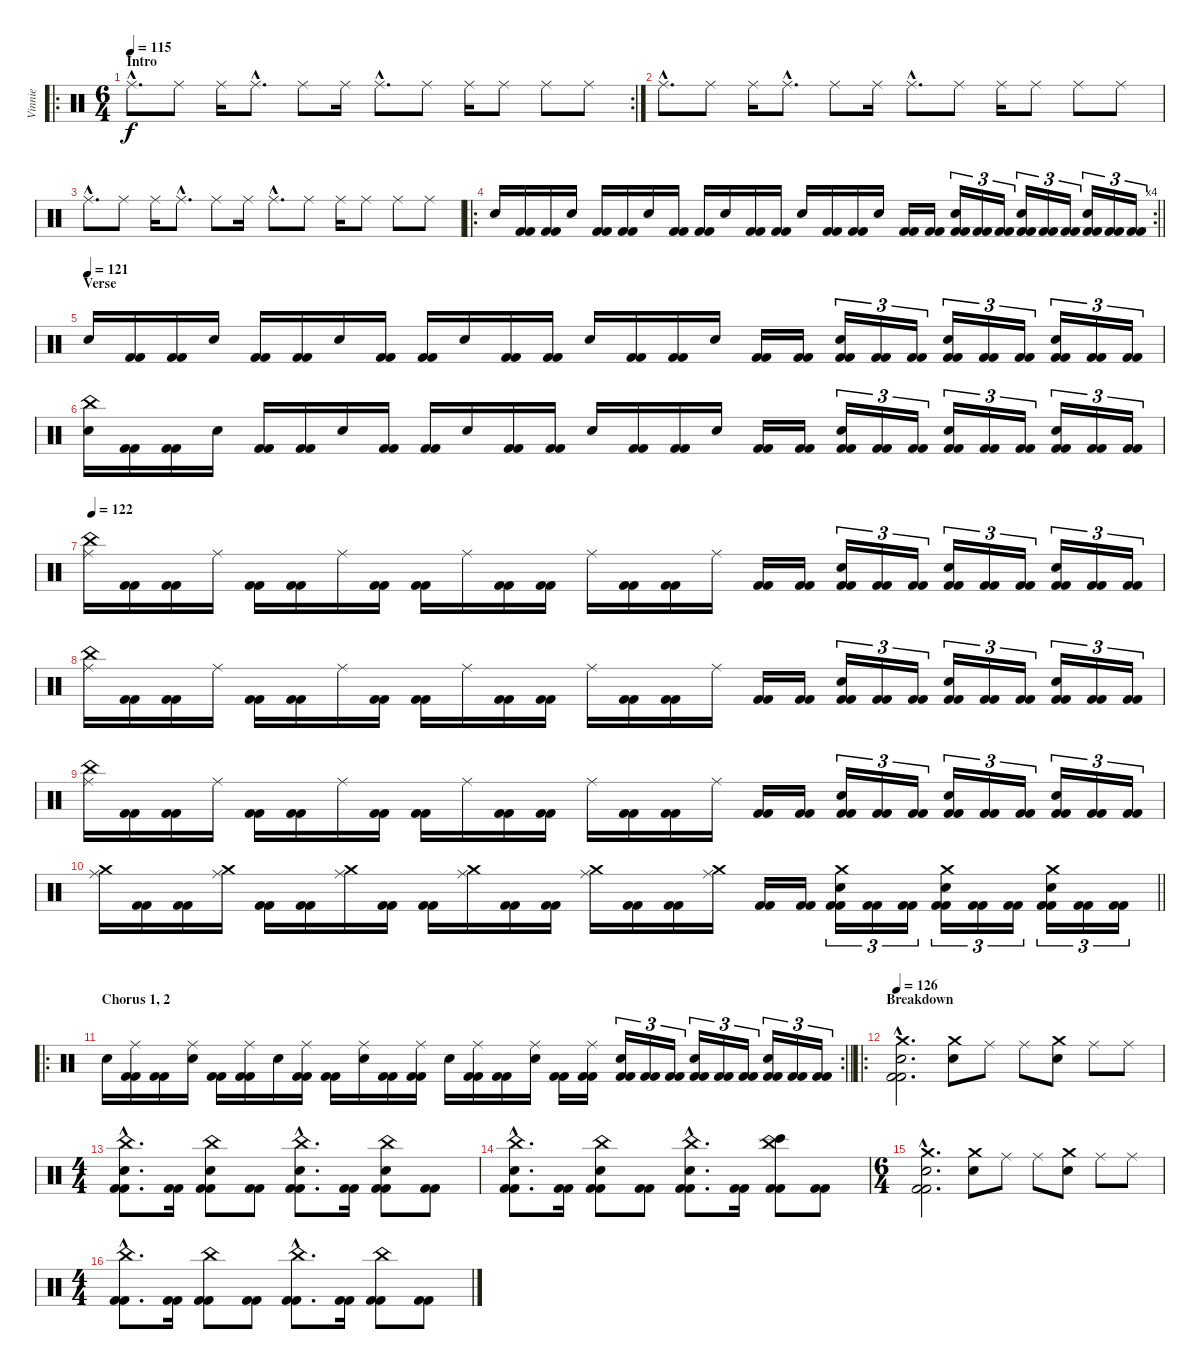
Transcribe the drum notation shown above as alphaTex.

\track ("Vinnie" "Vinnie") {instrument percussion}
\staff {score}
\articulation defaults
\ro
\rc 2
\ts (6 4)
\section ("" "Intro")
\tempo 115
\clef neutral
\ks c "Ride (middle)"{hac}.8{d dy f} "Ride (middle)".8 "Ride (middle)".16 "Ride (middle)"{hac}.8{d} "Ride (middle)".8 "Ride (middle)".16 "Ride (middle)"{hac}.8{d} "Ride (middle)".8 "Ride (middle)".16 "Ride (middle)".8 "Ride (middle)".8 "Ride (middle)".8
|
"Ride (middle)"{hac}.8{d} "Ride (middle)".8 "Ride (middle)".16 "Ride (middle)"{hac}.8{d} "Ride (middle)".8 "Ride (middle)".16 "Ride (middle)"{hac}.8{d} "Ride (middle)".8 "Ride (middle)".16 "Ride (middle)".8 "Ride (middle)".8 "Ride (middle)".8 |
"Ride (middle)"{hac}.8{d} "Ride (middle)".8 "Ride (middle)".16 "Ride (middle)"{hac}.8{d} "Ride (middle)".8 "Ride (middle)".16 "Ride (middle)"{hac}.8{d} "Ride (middle)".8 "Ride (middle)".16 "Ride (middle)".8 "Ride (middle)".8 "Ride (middle)".8 |
\ro
\rc 4
\barLineRight lightlight "Snare (hit) 2".16
("Kick (hit) 2" "Kick (hit) 2").16 ("Kick (hit) 2" "Kick (hit) 2").16 "Snare (hit) 2".16 ("Kick (hit) 2" "Kick (hit) 2").16 ("Kick (hit) 2" "Kick (hit) 2").16 "Snare (hit) 2".16 ("Kick (hit) 2" "Kick (hit) 2").16 ("Kick (hit) 2" "Kick (hit) 2").16 "Snare (hit) 2".16 ("Kick (hit) 2" "Kick (hit) 2").16 ("Kick (hit) 2" "Kick (hit) 2").16 "Snare (hit) 2".16 ("Kick (hit) 2" "Kick (hit) 2").16 ("Kick (hit) 2" "Kick (hit) 2").16 "Snare (hit) 2".16 ("Kick (hit) 2" "Kick (hit) 2").16 ("Kick (hit) 2" "Kick (hit) 2").16 ("Snare (hit) 2" "Kick (hit) 2" "Kick (hit) 2").16{tu (3 2)} ("Kick (hit) 2" "Kick (hit) 2").16{tu (3 2)} ("Kick (hit) 2" "Kick (hit) 2").16{tu (3 2)} ("Snare (hit) 2" "Kick (hit) 2" "Kick (hit) 2").16{tu (3 2)} ("Kick (hit) 2" "Kick (hit) 2").16{tu (3 2)} ("Kick (hit) 2" "Kick (hit) 2").16{tu (3 2)} ("Snare (hit) 2" "Kick (hit) 2" "Kick (hit) 2").16{tu (3 2)} ("Kick (hit) 2" "Kick (hit) 2").16{tu (3 2)} ("Kick (hit) 2" "Kick (hit) 2").16{tu (3 2)} |
\section ("" "Verse")
\tempo (121)
"Snare (hit) 2".16 ("Kick (hit) 2" "Kick (hit) 2").16 ("Kick (hit) 2" "Kick (hit) 2").16 "Snare (hit) 2".16 ("Kick (hit) 2" "Kick (hit) 2").16 ("Kick (hit) 2" "Kick (hit) 2").16 "Snare (hit) 2".16 ("Kick (hit) 2" "Kick (hit) 2").16 ("Kick (hit) 2" "Kick (hit) 2").16 "Snare (hit) 2".16 ("Kick (hit) 2" "Kick (hit) 2").16 ("Kick (hit) 2" "Kick (hit) 2").16 "Snare (hit) 2".16 ("Kick (hit) 2" "Kick (hit) 2").16 ("Kick (hit) 2" "Kick (hit) 2").16 "Snare (hit) 2".16 ("Kick (hit) 2" "Kick (hit) 2").16 ("Kick (hit) 2" "Kick (hit) 2").16 ("Snare (hit) 2" "Kick (hit) 2" "Kick (hit) 2").16{tu (3 2)} ("Kick (hit) 2" "Kick (hit) 2").16{tu (3 2)} ("Kick (hit) 2" "Kick (hit) 2").16{tu (3 2)} ("Snare (hit) 2" "Kick (hit) 2" "Kick (hit) 2").16{tu (3 2)} ("Kick (hit) 2" "Kick (hit) 2").16{tu (3 2)} ("Kick (hit) 2" "Kick (hit) 2").16{tu (3 2)} ("Snare (hit) 2" "Kick (hit) 2" "Kick (hit) 2").16{tu (3 2)} ("Kick (hit) 2" "Kick (hit) 2").16{tu (3 2)} ("Kick (hit) 2" "Kick (hit) 2").16{tu (3 2)} |
("China (hit)" "Snare (hit) 2").16 ("Kick (hit) 2" "Kick (hit) 2").16 ("Kick (hit) 2" "Kick (hit) 2").16 "Snare (hit) 2".16 ("Kick (hit) 2" "Kick (hit) 2").16 ("Kick (hit) 2" "Kick (hit) 2").16 "Snare (hit) 2".16 ("Kick (hit) 2" "Kick (hit) 2").16 ("Kick (hit) 2" "Kick (hit) 2").16 "Snare (hit) 2".16 ("Kick (hit) 2" "Kick (hit) 2").16 ("Kick (hit) 2" "Kick (hit) 2").16 "Snare (hit) 2".16 ("Kick (hit) 2" "Kick (hit) 2").16 ("Kick (hit) 2" "Kick (hit) 2").16 "Snare (hit) 2".16 ("Kick (hit) 2" "Kick (hit) 2").16 ("Kick (hit) 2" "Kick (hit) 2").16 ("Snare (hit) 2" "Kick (hit) 2" "Kick (hit) 2").16{tu (3 2)} ("Kick (hit) 2" "Kick (hit) 2").16{tu (3 2)} ("Kick (hit) 2" "Kick (hit) 2").16{tu (3 2)} ("Snare (hit) 2" "Kick (hit) 2" "Kick (hit) 2").16{tu (3 2)} ("Kick (hit) 2" "Kick (hit) 2").16{tu (3 2)} ("Kick (hit) 2" "Kick (hit) 2").16{tu (3 2)} ("Snare (hit) 2" "Kick (hit) 2" "Kick (hit) 2").16{tu (3 2)} ("Kick (hit) 2" "Kick (hit) 2").16{tu (3 2)} ("Kick (hit) 2" "Kick (hit) 2").16{tu (3 2)} |
\tempo 122
("Ride (middle)" "China (hit)").16 ("Kick (hit) 2" "Kick (hit) 2").16 ("Kick (hit) 2" "Kick (hit) 2").16 "Ride (middle)".16 ("Kick (hit) 2" "Kick (hit) 2").16 ("Kick (hit) 2" "Kick (hit) 2").16 "Ride (middle)".16 ("Kick (hit) 2" "Kick (hit) 2").16 ("Kick (hit) 2" "Kick (hit) 2").16 "Ride (middle)".16 ("Kick (hit) 2" "Kick (hit) 2").16 ("Kick (hit) 2" "Kick (hit) 2").16 "Ride (middle)".16 ("Kick (hit) 2" "Kick (hit) 2").16 ("Kick (hit) 2" "Kick (hit) 2").16 "Ride (middle)".16 ("Kick (hit) 2" "Kick (hit) 2").16 ("Kick (hit) 2" "Kick (hit) 2").16 ("Snare (hit) 2" "Kick (hit) 2" "Kick (hit) 2").16{tu (3 2)} ("Kick (hit) 2" "Kick (hit) 2").16{tu (3 2)} ("Kick (hit) 2" "Kick (hit) 2").16{tu (3 2)} ("Snare (hit) 2" "Kick (hit) 2" "Kick (hit) 2").16{tu (3 2)} ("Kick (hit) 2" "Kick (hit) 2").16{tu (3 2)} ("Kick (hit) 2" "Kick (hit) 2").16{tu (3 2)} ("Snare (hit) 2" "Kick (hit) 2" "Kick (hit) 2").16{tu (3 2)} ("Kick (hit) 2" "Kick (hit) 2").16{tu (3 2)} ("Kick (hit) 2" "Kick (hit) 2").16{tu (3 2)} |
("Ride (middle)" "China (hit)").16 ("Kick (hit) 2" "Kick (hit) 2").16 ("Kick (hit) 2" "Kick (hit) 2").16 "Ride (middle)".16 ("Kick (hit) 2" "Kick (hit) 2").16 ("Kick (hit) 2" "Kick (hit) 2").16 "Ride (middle)".16 ("Kick (hit) 2" "Kick (hit) 2").16 ("Kick (hit) 2" "Kick (hit) 2").16 "Ride (middle)".16 ("Kick (hit) 2" "Kick (hit) 2").16 ("Kick (hit) 2" "Kick (hit) 2").16 "Ride (middle)".16 ("Kick (hit) 2" "Kick (hit) 2").16 ("Kick (hit) 2" "Kick (hit) 2").16 "Ride (middle)".16 ("Kick (hit) 2" "Kick (hit) 2").16 ("Kick (hit) 2" "Kick (hit) 2").16 ("Snare (hit) 2" "Kick (hit) 2" "Kick (hit) 2").16{tu (3 2)} ("Kick (hit) 2" "Kick (hit) 2").16{tu (3 2)} ("Kick (hit) 2" "Kick (hit) 2").16{tu (3 2)} ("Snare (hit) 2" "Kick (hit) 2" "Kick (hit) 2").16{tu (3 2)} ("Kick (hit) 2" "Kick (hit) 2").16{tu (3 2)} ("Kick (hit) 2" "Kick (hit) 2").16{tu (3 2)} ("Snare (hit) 2" "Kick (hit) 2" "Kick (hit) 2").16{tu (3 2)} ("Kick (hit) 2" "Kick (hit) 2").16{tu (3 2)} ("Kick (hit) 2" "Kick (hit) 2").16{tu (3 2)} |
("Ride (middle)" "China (hit)").16 ("Kick (hit) 2" "Kick (hit) 2").16 ("Kick (hit) 2" "Kick (hit) 2").16 "Ride (middle)".16 ("Kick (hit) 2" "Kick (hit) 2").16 ("Kick (hit) 2" "Kick (hit) 2").16 "Ride (middle)".16 ("Kick (hit) 2" "Kick (hit) 2").16 ("Kick (hit) 2" "Kick (hit) 2").16 "Ride (middle)".16 ("Kick (hit) 2" "Kick (hit) 2").16 ("Kick (hit) 2" "Kick (hit) 2").16 "Ride (middle)".16 ("Kick (hit) 2" "Kick (hit) 2").16 ("Kick (hit) 2" "Kick (hit) 2").16 "Ride (middle)".16 ("Kick (hit) 2" "Kick (hit) 2").16 ("Kick (hit) 2" "Kick (hit) 2").16 ("Snare (hit) 2" "Kick (hit) 2" "Kick (hit) 2").16{tu (3 2)} ("Kick (hit) 2" "Kick (hit) 2").16{tu (3 2)} ("Kick (hit) 2" "Kick (hit) 2").16{tu (3 2)} ("Snare (hit) 2" "Kick (hit) 2" "Kick (hit) 2").16{tu (3 2)} ("Kick (hit) 2" "Kick (hit) 2").16{tu (3 2)} ("Kick (hit) 2" "Kick (hit) 2").16{tu (3 2)} ("Snare (hit) 2" "Kick (hit) 2" "Kick (hit) 2").16{tu (3 2)} ("Kick (hit) 2" "Kick (hit) 2").16{tu (3 2)} ("Kick (hit) 2" "Kick (hit) 2").16{tu (3 2)} |
\barLineRight lightlight
("Ride (middle)" "Crash medium (hit)").16 ("Kick (hit) 2" "Kick (hit) 2").16 ("Kick (hit) 2" "Kick (hit) 2").16 ("Ride (middle)" "Crash medium (hit)").16 ("Kick (hit) 2" "Kick (hit) 2").16 ("Kick (hit) 2" "Kick (hit) 2").16 ("Ride (middle)" "Crash medium (hit)").16 ("Kick (hit) 2" "Kick (hit) 2").16 ("Kick (hit) 2" "Kick (hit) 2").16 ("Ride (middle)" "Crash medium (hit)").16 ("Kick (hit) 2" "Kick (hit) 2").16 ("Kick (hit) 2" "Kick (hit) 2").16 ("Ride (middle)" "Crash medium (hit)").16 ("Kick (hit) 2" "Kick (hit) 2").16 ("Kick (hit) 2" "Kick (hit) 2").16 ("Ride (middle)" "Crash medium (hit)").16 ("Kick (hit) 2" "Kick (hit) 2").16 ("Kick (hit) 2" "Kick (hit) 2").16 ("Crash medium (hit)" "Snare (hit) 2" "Kick (hit) 2" "Kick (hit) 2").16{tu (3 2)} ("Kick (hit) 2" "Kick (hit) 2").16{tu (3 2)} ("Kick (hit) 2" "Kick (hit) 2").16{tu (3 2)} ("Crash medium (hit)" "Snare (hit) 2" "Kick (hit) 2" "Kick (hit) 2").16{tu (3 2)} ("Kick (hit) 2" "Kick (hit) 2").16{tu (3 2)} ("Kick (hit) 2" "Kick (hit) 2").16{tu (3 2)} ("Crash medium (hit)" "Snare (hit) 2" "Kick (hit) 2" "Kick (hit) 2").16{tu (3 2)} ("Kick (hit) 2" "Kick (hit) 2").16{tu (3 2)} ("Kick (hit) 2" "Kick (hit) 2").16{tu (3 2)} |
\ro
\rc 2
\section ("" "Chorus 1, 2")
\barLineRight lightlight "Snare (hit) 2".16
("Ride (middle)" "Kick (hit) 2" "Kick (hit) 2").16 ("Kick (hit) 2" "Kick (hit) 2").16 ("Ride (middle)" "Snare (hit) 2").16 ("Kick (hit) 2" "Kick (hit) 2").16 ("Ride (middle)" "Kick (hit) 2" "Kick (hit) 2").16 "Snare (hit) 2".16 ("Ride (middle)" "Kick (hit) 2" "Kick (hit) 2").16 ("Kick (hit) 2" "Kick (hit) 2").16 ("Ride (middle)" "Snare (hit) 2").16 ("Kick (hit) 2" "Kick (hit) 2").16 ("Ride (middle)" "Kick (hit) 2" "Kick (hit) 2").16 "Snare (hit) 2".16 ("Ride (middle)" "Kick (hit) 2" "Kick (hit) 2").16 ("Kick (hit) 2" "Kick (hit) 2").16 ("Ride (middle)" "Snare (hit) 2").16 ("Kick (hit) 2" "Kick (hit) 2").16 ("Ride (middle)" "Kick (hit) 2" "Kick (hit) 2").16 ("Snare (hit) 2" "Kick (hit) 2" "Kick (hit) 2").16{tu (3 2)} ("Kick (hit) 2" "Kick (hit) 2").16{tu (3 2)} ("Kick (hit) 2" "Kick (hit) 2").16{tu (3 2)} ("Snare (hit) 2" "Kick (hit) 2" "Kick (hit) 2").16{tu (3 2)} ("Kick (hit) 2" "Kick (hit) 2").16{tu (3 2)} ("Kick (hit) 2" "Kick (hit) 2").16{tu (3 2)} ("Snare (hit) 2" "Kick (hit) 2" "Kick (hit) 2").16{tu (3 2)} ("Kick (hit) 2" "Kick (hit) 2").16{tu (3 2)} ("Kick (hit) 2" "Kick (hit) 2").16{tu (3 2)} |
\ro
\section ("" "Breakdown")
\tempo 126
("Crash medium (hit)"{hac} "Snare (hit) 2"{hac} "Kick (hit) 2"{hac} "Kick (hit) 2"{hac}).2{d} ("Crash medium (hit)" "Snare (hit) 2").8 "Ride (middle)".8 "Ride (middle)".8 ("Crash medium (hit)" "Snare (hit) 2").8 "Ride (middle)".8 "Ride (middle)".8 |
\ts (4 4)
("China (hit)"{hac} "Snare (hit) 2"{hac} "Kick (hit) 2"{hac} "Kick (hit) 2"{hac}).8{d} ("Kick (hit) 2" "Kick (hit) 2").16 ("China (hit)" "Snare (hit) 2" "Kick (hit) 2" "Kick (hit) 2").8 ("Kick (hit) 2" "Kick (hit) 2").8 ("China (hit)"{hac} "Snare (hit) 2"{hac} "Kick (hit) 2"{hac} "Kick (hit) 2"{hac}).8{d} ("Kick (hit) 2" "Kick (hit) 2").16 ("China (hit)" "Snare (hit) 2" "Kick (hit) 2" "Kick (hit) 2").8 ("Kick (hit) 2" "Kick (hit) 2").8 |
("China (hit)"{hac} "Snare (hit) 2"{hac} "Kick (hit) 2"{hac} "Kick (hit) 2"{hac}).8{d} ("Kick (hit) 2" "Kick (hit) 2").16 ("China (hit)" "Snare (hit) 2" "Kick (hit) 2" "Kick (hit) 2").8 ("Kick (hit) 2" "Kick (hit) 2").8 ("China (hit)"{hac} "Snare (hit) 2"{hac} "Kick (hit) 2"{hac} "Kick (hit) 2"{hac}).8{d} ("Kick (hit) 2" "Kick (hit) 2").16 ("China (hit)" "Bongo High (hit)" "Kick (hit) 2" "Kick (hit) 2").8 ("Kick (hit) 2" "Kick (hit) 2").8 |
\ts (6 4)
("Crash medium (hit)"{hac} "Snare (hit) 2"{hac} "Kick (hit) 2"{hac} "Kick (hit) 2"{hac}).2{d} ("Crash medium (hit)" "Snare (hit) 2").8 "Ride (middle)".8 "Ride (middle)".8 ("Crash medium (hit)" "Snare (hit) 2").8 "Ride (middle)".8 "Ride (middle)".8 |
\ts (4 4)
("China (hit)"{hac} "Kick (hit) 2"{hac} "Kick (hit) 2"{hac}).8{d} ("Kick (hit) 2" "Kick (hit) 2").16 ("China (hit)" "Kick (hit) 2" "Kick (hit) 2").8 ("Kick (hit) 2" "Kick (hit) 2").8 ("China (hit)"{hac} "Kick (hit) 2"{hac} "Kick (hit) 2"{hac}).8{d} ("Kick (hit) 2" "Kick (hit) 2").16 ("China (hit)" "Kick (hit) 2" "Kick (hit) 2").8 ("Kick (hit) 2" "Kick (hit) 2").8
